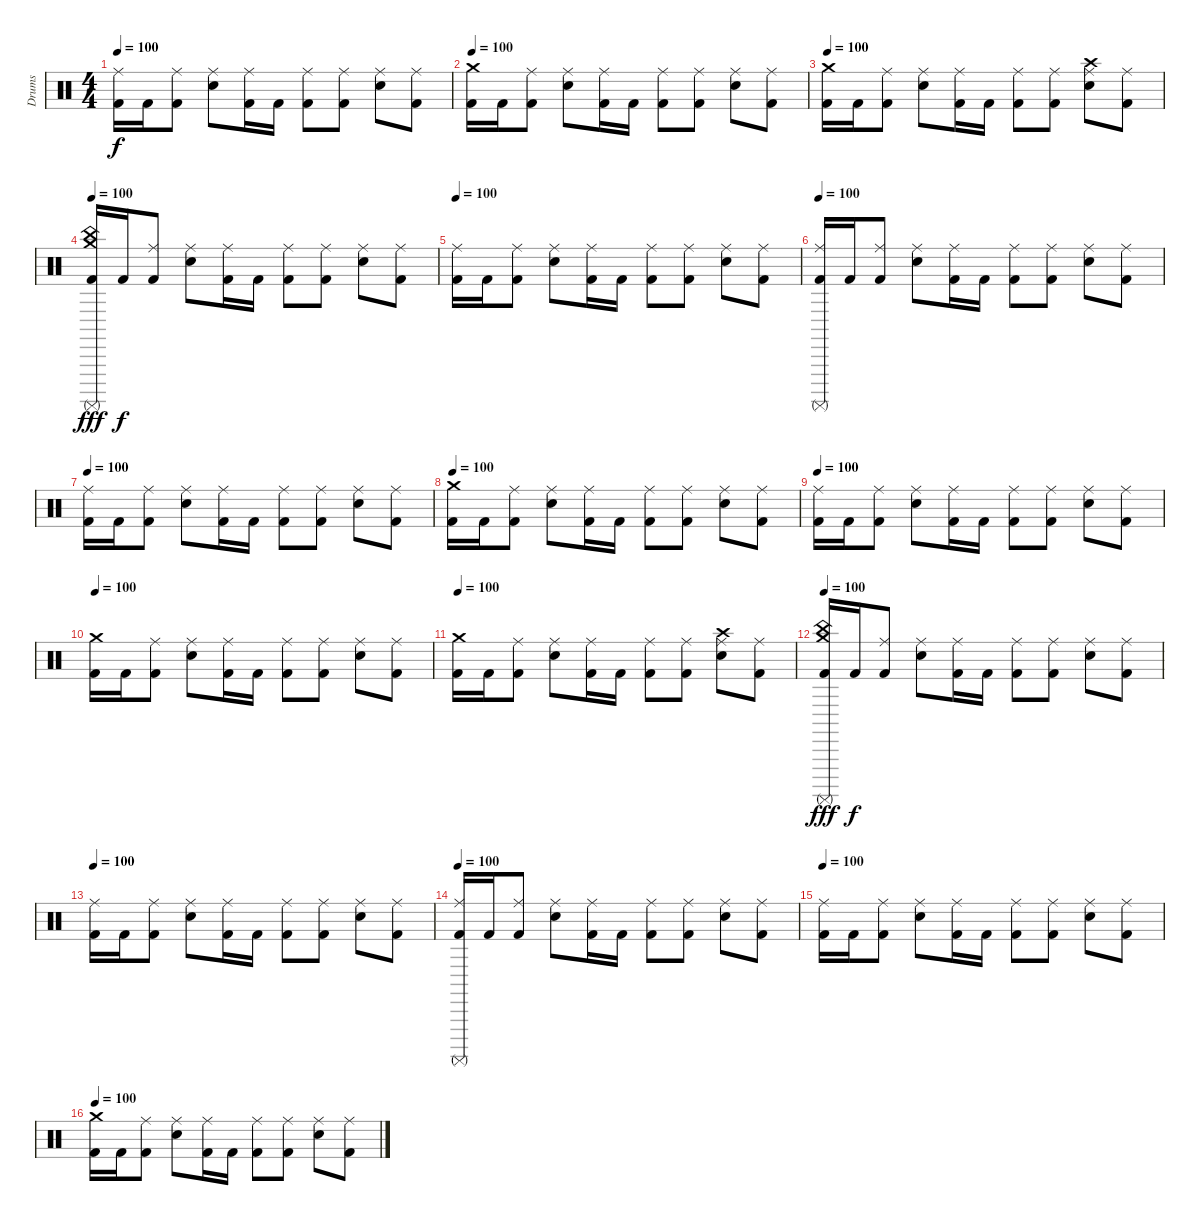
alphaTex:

\track ("Drums" "Drums") {instrument percussion}
\staff {score}
\articulation defaults
\ts (4 4)
\tempo 100
\clef neutral
\ks c
("Ride (middle)" "Kick (hit) 2").16{dy f} "Kick (hit) 2".16 ("Ride (middle)" "Kick (hit) 2").8 ("Ride (middle)" "Electric Snare (hit)").8 ("Ride (middle)" "Kick (hit) 2").16 "Kick (hit) 2".16 ("Ride (middle)" "Kick (hit) 2").8 ("Ride (middle)" "Kick (hit) 2").8 ("Ride (middle)" "Electric Snare (hit)").8 ("Ride (middle)" "Kick (hit) 2").8 |
\tempo 100
("Crash medium (hit)" "Kick (hit) 2").16 "Kick (hit) 2".16 ("Ride (middle)" "Kick (hit) 2").8 ("Ride (middle)" "Electric Snare (hit)").8 ("Ride (middle)" "Kick (hit) 2").16 "Kick (hit) 2".16 ("Ride (middle)" "Kick (hit) 2").8 ("Ride (middle)" "Kick (hit) 2").8 ("Ride (middle)" "Electric Snare (hit)").8 ("Ride (middle)" "Kick (hit) 2").8 |
\tempo 100
("Crash medium (hit)" "Kick (hit) 2").16 "Kick (hit) 2".16 ("Ride (middle)" "Kick (hit) 2").8 ("Ride (middle)" "Electric Snare (hit)").8 ("Ride (middle)" "Kick (hit) 2").16 "Kick (hit) 2".16 ("Ride (middle)" "Kick (hit) 2").8 ("Ride (middle)" "Kick (hit) 2").8 ("Crash high (hit)" "Ride (middle)" "Electric Snare (hit)").8 ("Ride (middle)" "Kick (hit) 2").8 |
\tempo 100
("Crash medium (hit)" "China (hit)" "Surdo (mute)" "Kick (hit) 2").16{dy fff} "Kick (hit) 2".16{dy f} ("Ride (middle)" "Kick (hit) 2").8 ("Ride (middle)" "Electric Snare (hit)").8 ("Ride (middle)" "Kick (hit) 2").16 "Kick (hit) 2".16 ("Ride (middle)" "Kick (hit) 2").8 ("Ride (middle)" "Kick (hit) 2").8 ("Ride (middle)" "Electric Snare (hit)").8 ("Ride (middle)" "Kick (hit) 2").8 |
\tempo 100
("Ride (middle)" "Kick (hit) 2").16 "Kick (hit) 2".16 ("Ride (middle)" "Kick (hit) 2").8 ("Ride (middle)" "Electric Snare (hit)").8 ("Ride (middle)" "Kick (hit) 2").16 "Kick (hit) 2".16 ("Ride (middle)" "Kick (hit) 2").8 ("Ride (middle)" "Kick (hit) 2").8 ("Ride (middle)" "Electric Snare (hit)").8 ("Ride (middle)" "Kick (hit) 2").8 |
\tempo 100
("Surdo (mute)" "Ride (middle)" "Kick (hit) 2").16 "Kick (hit) 2".16 ("Ride (middle)" "Kick (hit) 2").8 ("Ride (middle)" "Electric Snare (hit)").8 ("Ride (middle)" "Kick (hit) 2").16 "Kick (hit) 2".16 ("Ride (middle)" "Kick (hit) 2").8 ("Ride (middle)" "Kick (hit) 2").8 ("Ride (middle)" "Electric Snare (hit)").8 ("Ride (middle)" "Kick (hit) 2").8 |
\tempo 100
("Ride (middle)" "Kick (hit) 2").16 "Kick (hit) 2".16 ("Ride (middle)" "Kick (hit) 2").8 ("Ride (middle)" "Electric Snare (hit)").8 ("Ride (middle)" "Kick (hit) 2").16 "Kick (hit) 2".16 ("Ride (middle)" "Kick (hit) 2").8 ("Ride (middle)" "Kick (hit) 2").8 ("Ride (middle)" "Electric Snare (hit)").8 ("Ride (middle)" "Kick (hit) 2").8 |
\tempo 100
("Crash medium (hit)" "Kick (hit) 2").16 "Kick (hit) 2".16 ("Ride (middle)" "Kick (hit) 2").8 ("Ride (middle)" "Electric Snare (hit)").8 ("Ride (middle)" "Kick (hit) 2").16 "Kick (hit) 2".16 ("Ride (middle)" "Kick (hit) 2").8 ("Ride (middle)" "Kick (hit) 2").8 ("Ride (middle)" "Electric Snare (hit)").8 ("Ride (middle)" "Kick (hit) 2").8 |
\tempo 100
("Ride (middle)" "Kick (hit) 2").16 "Kick (hit) 2".16 ("Ride (middle)" "Kick (hit) 2").8 ("Ride (middle)" "Electric Snare (hit)").8 ("Ride (middle)" "Kick (hit) 2").16 "Kick (hit) 2".16 ("Ride (middle)" "Kick (hit) 2").8 ("Ride (middle)" "Kick (hit) 2").8 ("Ride (middle)" "Electric Snare (hit)").8 ("Ride (middle)" "Kick (hit) 2").8 |
\tempo 100
("Crash medium (hit)" "Kick (hit) 2").16 "Kick (hit) 2".16 ("Ride (middle)" "Kick (hit) 2").8 ("Ride (middle)" "Electric Snare (hit)").8 ("Ride (middle)" "Kick (hit) 2").16 "Kick (hit) 2".16 ("Ride (middle)" "Kick (hit) 2").8 ("Ride (middle)" "Kick (hit) 2").8 ("Ride (middle)" "Electric Snare (hit)").8 ("Ride (middle)" "Kick (hit) 2").8 |
\tempo 100
("Crash medium (hit)" "Kick (hit) 2").16 "Kick (hit) 2".16 ("Ride (middle)" "Kick (hit) 2").8 ("Ride (middle)" "Electric Snare (hit)").8 ("Ride (middle)" "Kick (hit) 2").16 "Kick (hit) 2".16 ("Ride (middle)" "Kick (hit) 2").8 ("Ride (middle)" "Kick (hit) 2").8 ("Crash high (hit)" "Ride (middle)" "Electric Snare (hit)").8 ("Ride (middle)" "Kick (hit) 2").8 |
\tempo 100
("Crash medium (hit)" "China (hit)" "Surdo (mute)" "Kick (hit) 2").16{dy fff} "Kick (hit) 2".16{dy f} ("Ride (middle)" "Kick (hit) 2").8 ("Ride (middle)" "Electric Snare (hit)").8 ("Ride (middle)" "Kick (hit) 2").16 "Kick (hit) 2".16 ("Ride (middle)" "Kick (hit) 2").8 ("Ride (middle)" "Kick (hit) 2").8 ("Ride (middle)" "Electric Snare (hit)").8 ("Ride (middle)" "Kick (hit) 2").8 |
\tempo 100
("Ride (middle)" "Kick (hit) 2").16{volume 9} "Kick (hit) 2".16 ("Ride (middle)" "Kick (hit) 2").8 ("Ride (middle)" "Electric Snare (hit)").8 ("Ride (middle)" "Kick (hit) 2").16 "Kick (hit) 2".16 ("Ride (middle)" "Kick (hit) 2").8 ("Ride (middle)" "Kick (hit) 2").8 ("Ride (middle)" "Electric Snare (hit)").8 ("Ride (middle)" "Kick (hit) 2").8 |
\tempo 100
("Surdo (mute)" "Ride (middle)" "Kick (hit) 2").16 "Kick (hit) 2".16 ("Ride (middle)" "Kick (hit) 2").8 ("Ride (middle)" "Electric Snare (hit)").8 ("Ride (middle)" "Kick (hit) 2").16 "Kick (hit) 2".16 ("Ride (middle)" "Kick (hit) 2").8 ("Ride (middle)" "Kick (hit) 2").8 ("Ride (middle)" "Electric Snare (hit)").8 ("Ride (middle)" "Kick (hit) 2").8 |
\tempo 100
("Ride (middle)" "Kick (hit) 2").16 "Kick (hit) 2".16 ("Ride (middle)" "Kick (hit) 2").8 ("Ride (middle)" "Electric Snare (hit)").8 ("Ride (middle)" "Kick (hit) 2").16 "Kick (hit) 2".16 ("Ride (middle)" "Kick (hit) 2").8 ("Ride (middle)" "Kick (hit) 2").8 ("Ride (middle)" "Electric Snare (hit)").8 ("Ride (middle)" "Kick (hit) 2").8 |
\tempo 100
("Crash medium (hit)" "Kick (hit) 2").16 "Kick (hit) 2".16 ("Ride (middle)" "Kick (hit) 2").8 ("Ride (middle)" "Electric Snare (hit)").8 ("Ride (middle)" "Kick (hit) 2").16 "Kick (hit) 2".16 ("Ride (middle)" "Kick (hit) 2").8 ("Ride (middle)" "Kick (hit) 2").8 ("Ride (middle)" "Electric Snare (hit)").8 ("Ride (middle)" "Kick (hit) 2").8
